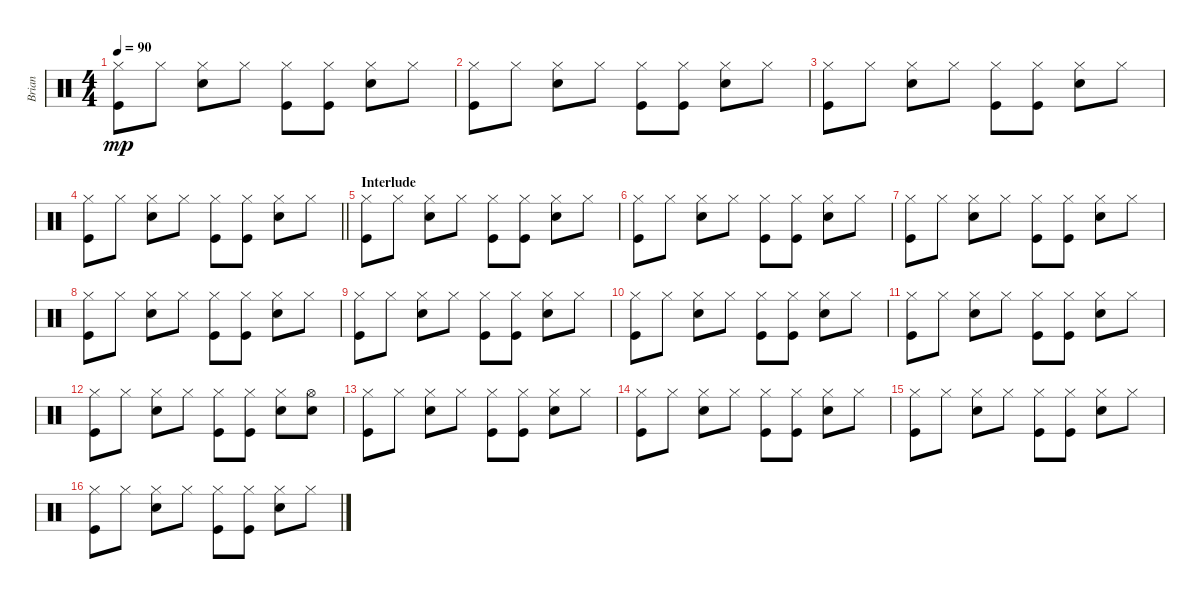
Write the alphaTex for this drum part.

\track ("Brian" "Brian") {instrument percussion}
\staff {score}
\articulation defaults
\ts (4 4)
\tempo 90
\clef neutral
\ks c
("Hi-Hat (closed)" "Kick (hit)").8{dy mp} "Hi-Hat (closed)".8 ("Hi-Hat (closed)" "Snare (hit) 2").8 "Hi-Hat (closed)".8 ("Hi-Hat (closed)" "Kick (hit)").8 ("Hi-Hat (closed)" "Kick (hit)").8 ("Hi-Hat (closed)" "Snare (hit) 2").8 "Hi-Hat (closed)".8 |
("Hi-Hat (closed)" "Kick (hit)").8 "Hi-Hat (closed)".8 ("Hi-Hat (closed)" "Snare (hit) 2").8 "Hi-Hat (closed)".8 ("Hi-Hat (closed)" "Kick (hit)").8 ("Hi-Hat (closed)" "Kick (hit)").8 ("Hi-Hat (closed)" "Snare (hit) 2").8 "Hi-Hat (closed)".8 |
("Hi-Hat (closed)" "Kick (hit)").8 "Hi-Hat (closed)".8 ("Hi-Hat (closed)" "Snare (hit) 2").8 "Hi-Hat (closed)".8 ("Hi-Hat (closed)" "Kick (hit)").8 ("Hi-Hat (closed)" "Kick (hit)").8 ("Hi-Hat (closed)" "Snare (hit) 2").8 "Hi-Hat (closed)".8 |
\barLineRight lightlight
("Hi-Hat (closed)" "Kick (hit)").8 "Hi-Hat (closed)".8 ("Hi-Hat (closed)" "Snare (hit) 2").8 "Hi-Hat (closed)".8 ("Hi-Hat (closed)" "Kick (hit)").8 ("Hi-Hat (closed)" "Kick (hit)").8 ("Hi-Hat (closed)" "Snare (hit) 2").8 "Hi-Hat (closed)".8 |
\section ("" "Interlude")
("Hi-Hat (closed)" "Kick (hit)").8 "Hi-Hat (closed)".8 ("Hi-Hat (closed)" "Snare (hit) 2").8 "Hi-Hat (closed)".8 ("Hi-Hat (closed)" "Kick (hit)").8 ("Hi-Hat (closed)" "Kick (hit)").8 ("Hi-Hat (closed)" "Snare (hit) 2").8 "Hi-Hat (closed)".8 |
("Hi-Hat (closed)" "Kick (hit)").8 "Hi-Hat (closed)".8 ("Hi-Hat (closed)" "Snare (hit) 2").8 "Hi-Hat (closed)".8 ("Hi-Hat (closed)" "Kick (hit)").8 ("Hi-Hat (closed)" "Kick (hit)").8 ("Hi-Hat (closed)" "Snare (hit) 2").8 "Hi-Hat (closed)".8 |
("Hi-Hat (closed)" "Kick (hit)").8 "Hi-Hat (closed)".8 ("Hi-Hat (closed)" "Snare (hit) 2").8 "Hi-Hat (closed)".8 ("Hi-Hat (closed)" "Kick (hit)").8 ("Hi-Hat (closed)" "Kick (hit)").8 ("Hi-Hat (closed)" "Snare (hit) 2").8 "Hi-Hat (closed)".8 |
("Hi-Hat (closed)" "Kick (hit)").8 "Hi-Hat (closed)".8 ("Hi-Hat (closed)" "Snare (hit) 2").8 "Hi-Hat (closed)".8 ("Hi-Hat (closed)" "Kick (hit)").8 ("Hi-Hat (closed)" "Kick (hit)").8 ("Hi-Hat (closed)" "Snare (hit) 2").8 "Hi-Hat (closed)".8 |
("Hi-Hat (closed)" "Kick (hit)").8 "Hi-Hat (closed)".8 ("Hi-Hat (closed)" "Snare (hit) 2").8 "Hi-Hat (closed)".8 ("Hi-Hat (closed)" "Kick (hit)").8 ("Hi-Hat (closed)" "Kick (hit)").8 ("Hi-Hat (closed)" "Snare (hit) 2").8 "Hi-Hat (closed)".8 |
("Hi-Hat (closed)" "Kick (hit)").8 "Hi-Hat (closed)".8 ("Hi-Hat (closed)" "Snare (hit) 2").8 "Hi-Hat (closed)".8 ("Hi-Hat (closed)" "Kick (hit)").8 ("Hi-Hat (closed)" "Kick (hit)").8 ("Hi-Hat (closed)" "Snare (hit) 2").8 "Hi-Hat (closed)".8 |
("Hi-Hat (closed)" "Kick (hit)").8 "Hi-Hat (closed)".8 ("Hi-Hat (closed)" "Snare (hit) 2").8 "Hi-Hat (closed)".8 ("Hi-Hat (closed)" "Kick (hit)").8 ("Hi-Hat (closed)" "Kick (hit)").8 ("Hi-Hat (closed)" "Snare (hit) 2").8 "Hi-Hat (closed)".8 |
("Hi-Hat (closed)" "Kick (hit)").8 "Hi-Hat (closed)".8 ("Hi-Hat (closed)" "Snare (hit) 2").8 "Hi-Hat (closed)".8 ("Hi-Hat (closed)" "Kick (hit)").8 ("Hi-Hat (closed)" "Kick (hit)").8 ("Hi-Hat (closed)" "Snare (hit) 2").8 ("Hi-Hat (open)" "Snare (hit) 2").8 |
("Hi-Hat (closed)" "Kick (hit)").8 "Hi-Hat (closed)".8 ("Hi-Hat (closed)" "Snare (hit) 2").8 "Hi-Hat (closed)".8 ("Hi-Hat (closed)" "Kick (hit)").8 ("Hi-Hat (closed)" "Kick (hit)").8 ("Hi-Hat (closed)" "Snare (hit) 2").8 "Hi-Hat (closed)".8 |
("Hi-Hat (closed)" "Kick (hit)").8 "Hi-Hat (closed)".8 ("Hi-Hat (closed)" "Snare (hit) 2").8 "Hi-Hat (closed)".8 ("Hi-Hat (closed)" "Kick (hit)").8 ("Hi-Hat (closed)" "Kick (hit)").8 ("Hi-Hat (closed)" "Snare (hit) 2").8 "Hi-Hat (closed)".8 |
("Hi-Hat (closed)" "Kick (hit)").8 "Hi-Hat (closed)".8 ("Hi-Hat (closed)" "Snare (hit) 2").8 "Hi-Hat (closed)".8 ("Hi-Hat (closed)" "Kick (hit)").8 ("Hi-Hat (closed)" "Kick (hit)").8 ("Hi-Hat (closed)" "Snare (hit) 2").8 "Hi-Hat (closed)".8 |
("Hi-Hat (closed)" "Kick (hit)").8 "Hi-Hat (closed)".8 ("Hi-Hat (closed)" "Snare (hit) 2").8 "Hi-Hat (closed)".8 ("Hi-Hat (closed)" "Kick (hit)").8 ("Hi-Hat (closed)" "Kick (hit)").8 ("Hi-Hat (closed)" "Snare (hit) 2").8 "Hi-Hat (closed)".8
